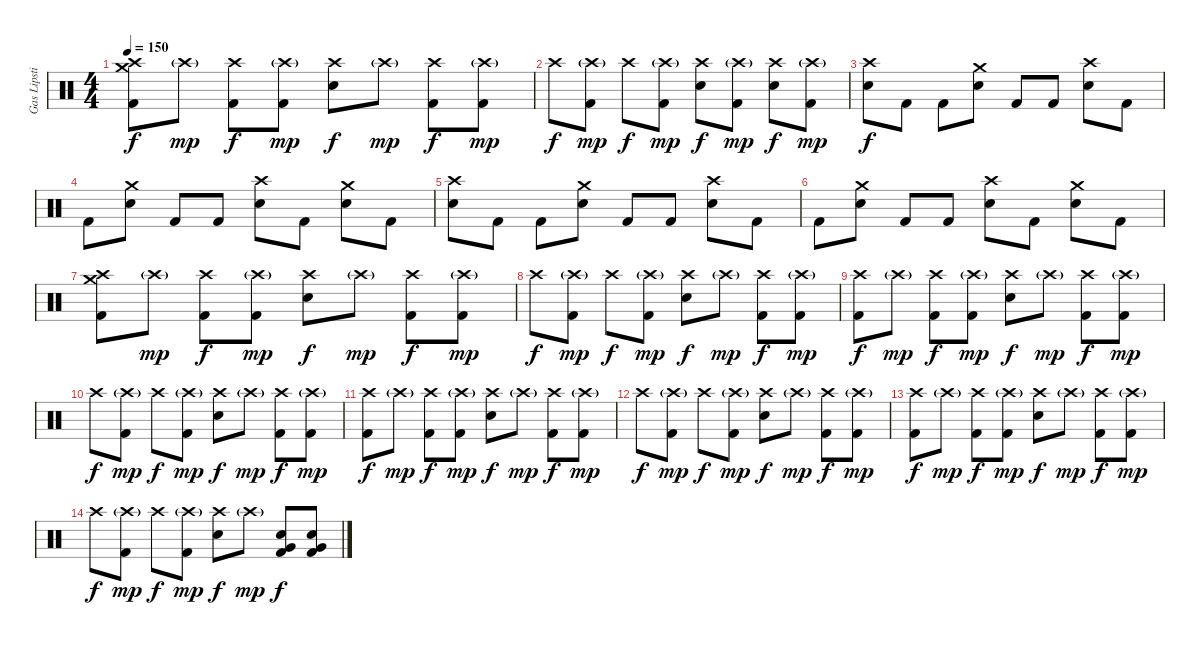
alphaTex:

\track ("Gas Lipstick" "Gas Lipsti") {instrument percussion}
\staff {score}
\articulation defaults
\ts (4 4)
\tempo 150
\clef neutral
\ks c
("Crash medium (hit)" "Crash high (hit)" "Kick (hit) 2").8{dy f} "Crash high (hit)"{g}.8{dy mp} ("Crash high (hit)" "Kick (hit) 2").8{dy f} ("Crash high (hit)"{g} "Kick (hit) 2").8{dy mp} ("Crash high (hit)" "Snare (hit) 2").8{dy f} "Crash high (hit)"{g}.8{dy mp} ("Crash high (hit)" "Kick (hit) 2").8{dy f} ("Crash high (hit)"{g} "Kick (hit) 2").8{dy mp} |
"Crash high (hit)".8{dy f} ("Crash high (hit)"{g} "Kick (hit) 2").8{dy mp} "Crash high (hit)".8{dy f} ("Crash high (hit)"{g} "Kick (hit) 2").8{dy mp} ("Crash high (hit)" "Snare (hit) 2").8{dy f} ("Crash high (hit)"{g} "Kick (hit) 2").8{dy mp} ("Crash high (hit)" "Snare (hit) 2").8{dy f} ("Crash high (hit)"{g} "Kick (hit) 2").8{dy mp} |
("Crash high (hit)" "Snare (hit) 2").8{dy f} "Kick (hit) 2".8 "Kick (hit) 2".8 ("Crash medium (hit)" "Snare (hit) 2").8 "Kick (hit) 2".8 "Kick (hit) 2".8 ("Crash high (hit)" "Snare (hit) 2").8 "Kick (hit) 2".8 |
"Kick (hit) 2".8 ("Crash medium (hit)" "Snare (hit) 2").8 "Kick (hit) 2".8 "Kick (hit) 2".8 ("Crash high (hit)" "Snare (hit) 2").8 "Kick (hit) 2".8 ("Crash medium (hit)" "Snare (hit) 2").8 "Kick (hit) 2".8 |
("Crash high (hit)" "Snare (hit) 2").8 "Kick (hit) 2".8 "Kick (hit) 2".8 ("Crash medium (hit)" "Snare (hit) 2").8 "Kick (hit) 2".8 "Kick (hit) 2".8 ("Crash high (hit)" "Snare (hit) 2").8 "Kick (hit) 2".8 |
"Kick (hit) 2".8 ("Crash medium (hit)" "Snare (hit) 2").8 "Kick (hit) 2".8 "Kick (hit) 2".8 ("Crash high (hit)" "Snare (hit) 2").8 "Kick (hit) 2".8 ("Crash medium (hit)" "Snare (hit) 2").8 "Kick (hit) 2".8 |
("Crash medium (hit)" "Crash high (hit)" "Kick (hit) 2").8 "Crash high (hit)"{g}.8{dy mp} ("Crash high (hit)" "Kick (hit) 2").8{dy f} ("Crash high (hit)"{g} "Kick (hit) 2").8{dy mp} ("Crash high (hit)" "Snare (hit) 2").8{dy f} "Crash high (hit)"{g}.8{dy mp} ("Crash high (hit)" "Kick (hit) 2").8{dy f} ("Crash high (hit)"{g} "Kick (hit) 2").8{dy mp} |
"Crash high (hit)".8{dy f} ("Crash high (hit)"{g} "Kick (hit) 2").8{dy mp} "Crash high (hit)".8{dy f} ("Crash high (hit)"{g} "Kick (hit) 2").8{dy mp} ("Crash high (hit)" "Snare (hit) 2").8{dy f} "Crash high (hit)"{g}.8{dy mp} ("Crash high (hit)" "Kick (hit) 2").8{dy f} ("Crash high (hit)"{g} "Kick (hit) 2").8{dy mp} |
("Crash high (hit)" "Kick (hit) 2").8{dy f} "Crash high (hit)"{g}.8{dy mp} ("Crash high (hit)" "Kick (hit) 2").8{dy f} ("Crash high (hit)"{g} "Kick (hit) 2").8{dy mp} ("Crash high (hit)" "Snare (hit) 2").8{dy f} "Crash high (hit)"{g}.8{dy mp} ("Crash high (hit)" "Kick (hit) 2").8{dy f} ("Crash high (hit)"{g} "Kick (hit) 2").8{dy mp} |
"Crash high (hit)".8{dy f} ("Crash high (hit)"{g} "Kick (hit) 2").8{dy mp} "Crash high (hit)".8{dy f} ("Crash high (hit)"{g} "Kick (hit) 2").8{dy mp} ("Crash high (hit)" "Snare (hit) 2").8{dy f} "Crash high (hit)"{g}.8{dy mp} ("Crash high (hit)" "Kick (hit) 2").8{dy f} ("Crash high (hit)"{g} "Kick (hit) 2").8{dy mp} |
("Crash high (hit)" "Kick (hit) 2").8{dy f} "Crash high (hit)"{g}.8{dy mp} ("Crash high (hit)" "Kick (hit) 2").8{dy f} ("Crash high (hit)"{g} "Kick (hit) 2").8{dy mp} ("Crash high (hit)" "Snare (hit) 2").8{dy f} "Crash high (hit)"{g}.8{dy mp} ("Crash high (hit)" "Kick (hit) 2").8{dy f} ("Crash high (hit)"{g} "Kick (hit) 2").8{dy mp} |
"Crash high (hit)".8{dy f} ("Crash high (hit)"{g} "Kick (hit) 2").8{dy mp} "Crash high (hit)".8{dy f} ("Crash high (hit)"{g} "Kick (hit) 2").8{dy mp} ("Crash high (hit)" "Snare (hit) 2").8{dy f} "Crash high (hit)"{g}.8{dy mp} ("Crash high (hit)" "Kick (hit) 2").8{dy f} ("Crash high (hit)"{g} "Kick (hit) 2").8{dy mp} |
("Crash high (hit)" "Kick (hit) 2").8{dy f} "Crash high (hit)"{g}.8{dy mp} ("Crash high (hit)" "Kick (hit) 2").8{dy f} ("Crash high (hit)"{g} "Kick (hit) 2").8{dy mp} ("Crash high (hit)" "Snare (hit) 2").8{dy f} "Crash high (hit)"{g}.8{dy mp} ("Crash high (hit)" "Kick (hit) 2").8{dy f} ("Crash high (hit)"{g} "Kick (hit) 2").8{dy mp} |
"Crash high (hit)".8{dy f} ("Crash high (hit)"{g} "Kick (hit) 2").8{dy mp} "Crash high (hit)".8{dy f} ("Crash high (hit)"{g} "Kick (hit) 2").8{dy mp} ("Crash high (hit)" "Snare (hit) 2").8{dy f} "Crash high (hit)"{g}.8{dy mp} ("Very Low Tom (hit)" "Snare (hit) 2" "Kick (hit) 2").8{dy f} ("Very Low Tom (hit)" "Snare (hit) 2" "Kick (hit) 2").8
